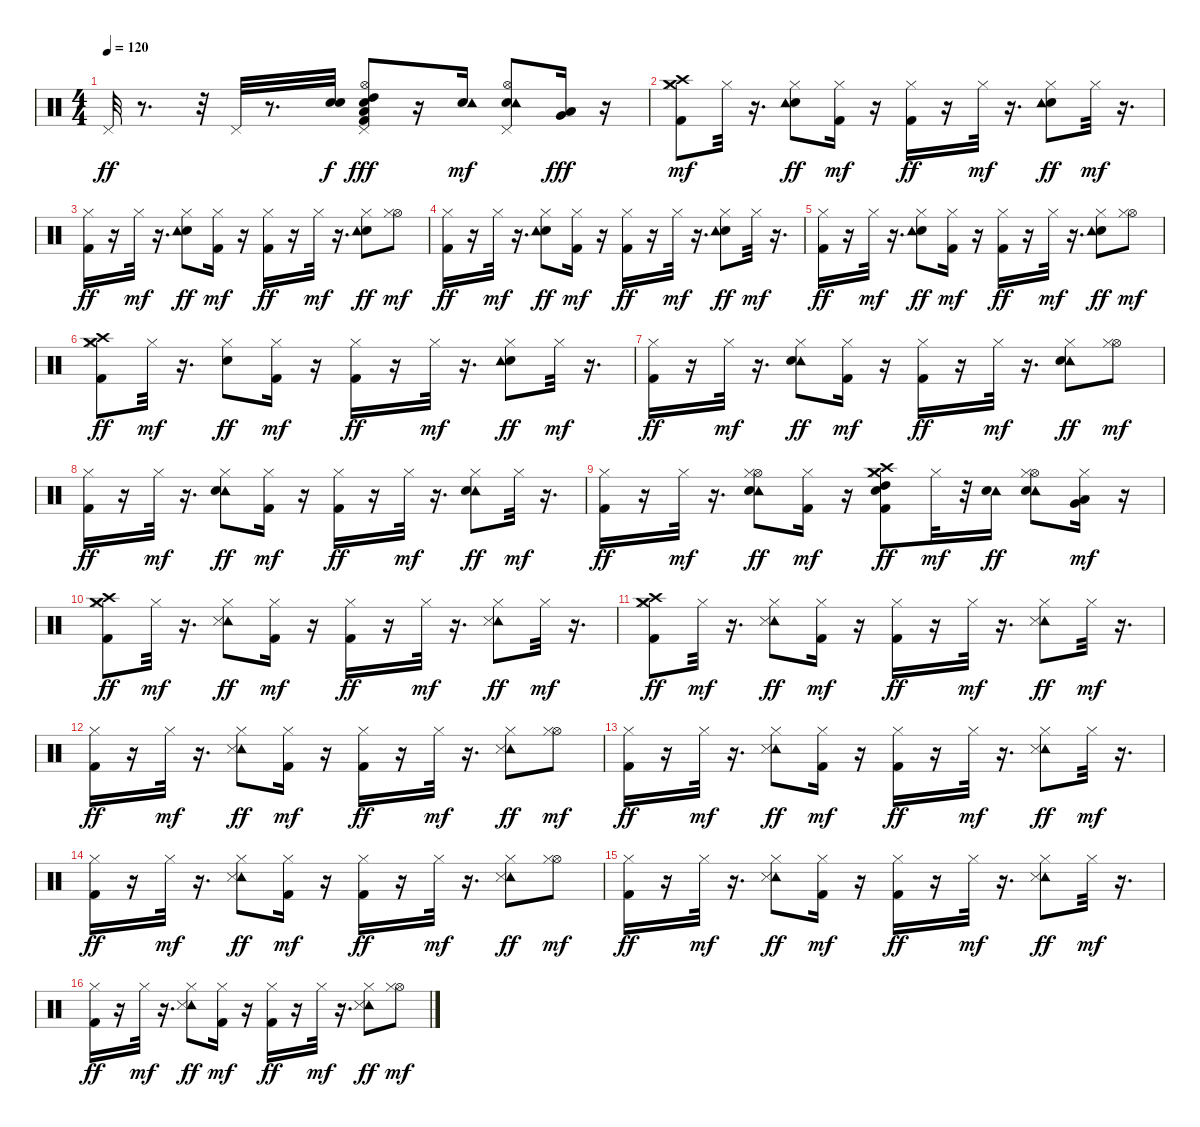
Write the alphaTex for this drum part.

\track "" {instrument percussion}
\staff {score}
\articulation defaults
\ts (4 4)
\tempo 120
\clef neutral
\ks c "Pedal Hi-Hat (hit)".32{dy ff}
r.8{d} r.32 "Pedal Hi-Hat (hit)".32{volume 16} r.8{d} ("Snare (hit) 2" "Snare (hit) 2").32{dy f} ("Kick (hit) 2" "Hi-Hat (open)" "Pedal Hi-Hat (hit)" "Snare (hit) 2" "Low Tom (hit)" "High Tom (hit)").8{dy fff} r.16 ("Snare (hit) 2" "Tambourine (hit)").16{dy mf} ("Hi-Hat (open)" "Pedal Hi-Hat (hit)" "Snare (hit) 2" "Tambourine (hit)").8 ("Low Floor Tom (hit)" "Very Low Tom (hit)").16{dy fff} r.16 |
("Hi-Hat (closed)" "Crash medium (hit)" "Crash high (hit)" "Kick (hit) 2").8{dy mf} "Hi-Hat (closed)".32 r.16{d} ("Snare (hit) 2" "Tambourine (hit)" "Hi-Hat (closed)").8{dy ff} ("Hi-Hat (closed)" "Kick (hit) 2").16{dy mf} r.16 ("Hi-Hat (closed)" "Kick (hit) 2").16{dy ff} r.16 "Hi-Hat (closed)".32{dy mf} r.16{d} ("Snare (hit) 2" "Tambourine (hit)" "Hi-Hat (closed)").8{dy ff} "Hi-Hat (closed)".32{dy mf} r.16{d} |
("Hi-Hat (closed)" "Kick (hit) 2").16{dy ff} r.16 "Hi-Hat (closed)".32{dy mf} r.16{d} ("Snare (hit) 2" "Tambourine (hit)" "Hi-Hat (closed)").8{dy ff} ("Hi-Hat (closed)" "Kick (hit) 2").16{dy mf} r.16 ("Hi-Hat (closed)" "Kick (hit) 2").16{dy ff} r.16 "Hi-Hat (closed)".32{dy mf} r.16{d} ("Snare (hit) 2" "Tambourine (hit)" "Hi-Hat (closed)").8{dy ff} ("Hi-Hat (open)" "Hi-Hat (closed)").8{dy mf} |
("Hi-Hat (closed)" "Kick (hit) 2").16{dy ff} r.16 "Hi-Hat (closed)".32{dy mf} r.16{d} ("Snare (hit) 2" "Tambourine (hit)" "Hi-Hat (closed)").8{dy ff} ("Hi-Hat (closed)" "Kick (hit) 2").16{dy mf} r.16 ("Hi-Hat (closed)" "Kick (hit) 2").16{dy ff} r.16 "Hi-Hat (closed)".32{dy mf} r.16{d} ("Snare (hit) 2" "Tambourine (hit)" "Hi-Hat (closed)").8{dy ff} "Hi-Hat (closed)".32{dy mf} r.16{d} |
("Hi-Hat (closed)" "Kick (hit) 2").16{dy ff} r.16 "Hi-Hat (closed)".32{dy mf} r.16{d} ("Snare (hit) 2" "Tambourine (hit)" "Hi-Hat (closed)").8{dy ff} ("Hi-Hat (closed)" "Kick (hit) 2").16{dy mf} r.16 ("Hi-Hat (closed)" "Kick (hit) 2").16{dy ff} r.16 "Hi-Hat (closed)".32{dy mf} r.16{d} ("Snare (hit) 2" "Tambourine (hit)" "Hi-Hat (closed)").8{dy ff} ("Hi-Hat (open)" "Hi-Hat (closed)").8{dy mf} |
("Crash medium (hit)" "Crash high (hit)" "Hi-Hat (closed)" "Kick (hit) 2").8{dy ff} "Hi-Hat (closed)".32{dy mf} r.16{d} ("Snare (hit) 2" "Hi-Hat (closed)").8{dy ff} ("Hi-Hat (closed)" "Kick (hit) 2").16{dy mf} r.16 ("Hi-Hat (closed)" "Kick (hit) 2").16{dy ff} r.16 "Hi-Hat (closed)".32{dy mf} r.16{d} ("Snare (hit) 2" "Tambourine (hit)" "Hi-Hat (closed)").8{dy ff} "Hi-Hat (closed)".32{dy mf} r.16{d} |
("Hi-Hat (closed)" "Kick (hit) 2").16{dy ff} r.16 "Hi-Hat (closed)".32{dy mf} r.16{d} ("Tambourine (hit)" "Snare (hit) 2" "Hi-Hat (closed)").8{dy ff} ("Hi-Hat (closed)" "Kick (hit) 2").16{dy mf} r.16 ("Hi-Hat (closed)" "Kick (hit) 2").16{dy ff} r.16 "Hi-Hat (closed)".32{dy mf} r.16{d} ("Tambourine (hit)" "Snare (hit) 2" "Hi-Hat (closed)").8{dy ff} ("Hi-Hat (open)" "Hi-Hat (closed)").8{dy mf} |
("Hi-Hat (closed)" "Kick (hit) 2").16{dy ff} r.16 "Hi-Hat (closed)".32{dy mf} r.16{d} ("Tambourine (hit)" "Snare (hit) 2" "Hi-Hat (closed)").8{dy ff} ("Hi-Hat (closed)" "Kick (hit) 2").16{dy mf} r.16 ("Hi-Hat (closed)" "Kick (hit) 2").16{dy ff} r.16 "Hi-Hat (closed)".32{dy mf} r.16{d} ("Tambourine (hit)" "Snare (hit) 2" "Hi-Hat (closed)").8{dy ff} "Hi-Hat (closed)".32{dy mf} r.16{d} |
("Hi-Hat (closed)" "Kick (hit) 2").16{dy ff} r.16 "Hi-Hat (closed)".32{dy mf} r.16{d} ("Tambourine (hit)" "Hi-Hat (open)" "Snare (hit) 2" "Hi-Hat (closed)").8{dy ff} ("Hi-Hat (closed)" "Kick (hit) 2").16{dy mf} r.16 ("High Tom (hit)" "Snare (hit) 2" "Crash high (hit)" "Crash medium (hit)" "Hi-Hat (closed)" "Kick (hit) 2").8{dy ff} "Hi-Hat (closed)".32{dy mf} r.32 ("Tambourine (hit)" "Snare (hit) 2").16{dy ff} ("Tambourine (hit)" "Snare (hit) 2" "Hi-Hat (open)" "Hi-Hat (closed)").8 ("Low Floor Tom (hit)" "Very Low Tom (hit)" "Hi-Hat (closed)").16{dy mf} r.16 |
("Crash medium (hit)" "Crash high (hit)" "Hi-Hat (closed)" "Kick (hit) 2").8{dy ff} "Hi-Hat (closed)".32{dy mf} r.16{d} ("Tambourine (hit)" "Snare (side stick) 3" "Hi-Hat (closed)").8{dy ff} ("Hi-Hat (closed)" "Kick (hit) 2").16{dy mf} r.16 ("Hi-Hat (closed)" "Kick (hit) 2").16{dy ff} r.16 "Hi-Hat (closed)".32{dy mf} r.16{d} ("Tambourine (hit)" "Snare (side stick) 3" "Hi-Hat (closed)").8{dy ff} "Hi-Hat (closed)".32{dy mf} r.16{d} |
("Crash medium (hit)" "Crash high (hit)" "Hi-Hat (closed)" "Kick (hit) 2").8{dy ff} "Hi-Hat (closed)".32{dy mf} r.16{d} ("Tambourine (hit)" "Snare (side stick) 3" "Hi-Hat (closed)").8{dy ff} ("Hi-Hat (closed)" "Kick (hit) 2").16{dy mf} r.16 ("Hi-Hat (closed)" "Kick (hit) 2").16{dy ff} r.16 "Hi-Hat (closed)".32{dy mf} r.16{d} ("Tambourine (hit)" "Snare (side stick) 3" "Hi-Hat (closed)").8{dy ff} "Hi-Hat (closed)".32{dy mf} r.16{d} |
("Hi-Hat (closed)" "Kick (hit) 2").16{dy ff} r.16 "Hi-Hat (closed)".32{dy mf} r.16{d} ("Tambourine (hit)" "Snare (side stick) 3" "Hi-Hat (closed)").8{dy ff} ("Hi-Hat (closed)" "Kick (hit) 2").16{dy mf} r.16 ("Hi-Hat (closed)" "Kick (hit) 2").16{dy ff} r.16 "Hi-Hat (closed)".32{dy mf} r.16{d} ("Tambourine (hit)" "Snare (side stick) 3" "Hi-Hat (closed)").8{dy ff} ("Hi-Hat (open)" "Hi-Hat (closed)").8{dy mf} |
("Hi-Hat (closed)" "Kick (hit) 2").16{dy ff} r.16 "Hi-Hat (closed)".32{dy mf} r.16{d} ("Tambourine (hit)" "Snare (side stick) 3" "Hi-Hat (closed)").8{dy ff} ("Hi-Hat (closed)" "Kick (hit) 2").16{dy mf} r.16 ("Hi-Hat (closed)" "Kick (hit) 2").16{dy ff} r.16 "Hi-Hat (closed)".32{dy mf} r.16{d} ("Tambourine (hit)" "Snare (side stick) 3" "Hi-Hat (closed)").8{dy ff} "Hi-Hat (closed)".32{dy mf} r.16{d} |
("Hi-Hat (closed)" "Kick (hit) 2").16{dy ff} r.16 "Hi-Hat (closed)".32{dy mf} r.16{d} ("Tambourine (hit)" "Snare (side stick) 3" "Hi-Hat (closed)").8{dy ff} ("Hi-Hat (closed)" "Kick (hit) 2").16{dy mf} r.16 ("Hi-Hat (closed)" "Kick (hit) 2").16{dy ff} r.16 "Hi-Hat (closed)".32{dy mf} r.16{d} ("Tambourine (hit)" "Snare (side stick) 3" "Hi-Hat (closed)").8{dy ff} ("Hi-Hat (open)" "Hi-Hat (closed)").8{dy mf} |
("Hi-Hat (closed)" "Kick (hit) 2").16{dy ff} r.16 "Hi-Hat (closed)".32{dy mf} r.16{d} ("Tambourine (hit)" "Snare (side stick) 3" "Hi-Hat (closed)").8{dy ff} ("Hi-Hat (closed)" "Kick (hit) 2").16{dy mf} r.16 ("Hi-Hat (closed)" "Kick (hit) 2").16{dy ff} r.16 "Hi-Hat (closed)".32{dy mf} r.16{d} ("Tambourine (hit)" "Snare (side stick) 3" "Hi-Hat (closed)").8{dy ff} "Hi-Hat (closed)".32{dy mf} r.16{d} |
("Hi-Hat (closed)" "Kick (hit) 2").16{dy ff} r.16 "Hi-Hat (closed)".32{dy mf} r.16{d} ("Tambourine (hit)" "Snare (side stick) 3" "Hi-Hat (closed)").8{dy ff} ("Hi-Hat (closed)" "Kick (hit) 2").16{dy mf} r.16 ("Hi-Hat (closed)" "Kick (hit) 2").16{dy ff} r.16 "Hi-Hat (closed)".32{dy mf} r.16{d} ("Tambourine (hit)" "Snare (side stick) 3" "Hi-Hat (closed)").8{dy ff} ("Hi-Hat (open)" "Hi-Hat (closed)").8{dy mf}
